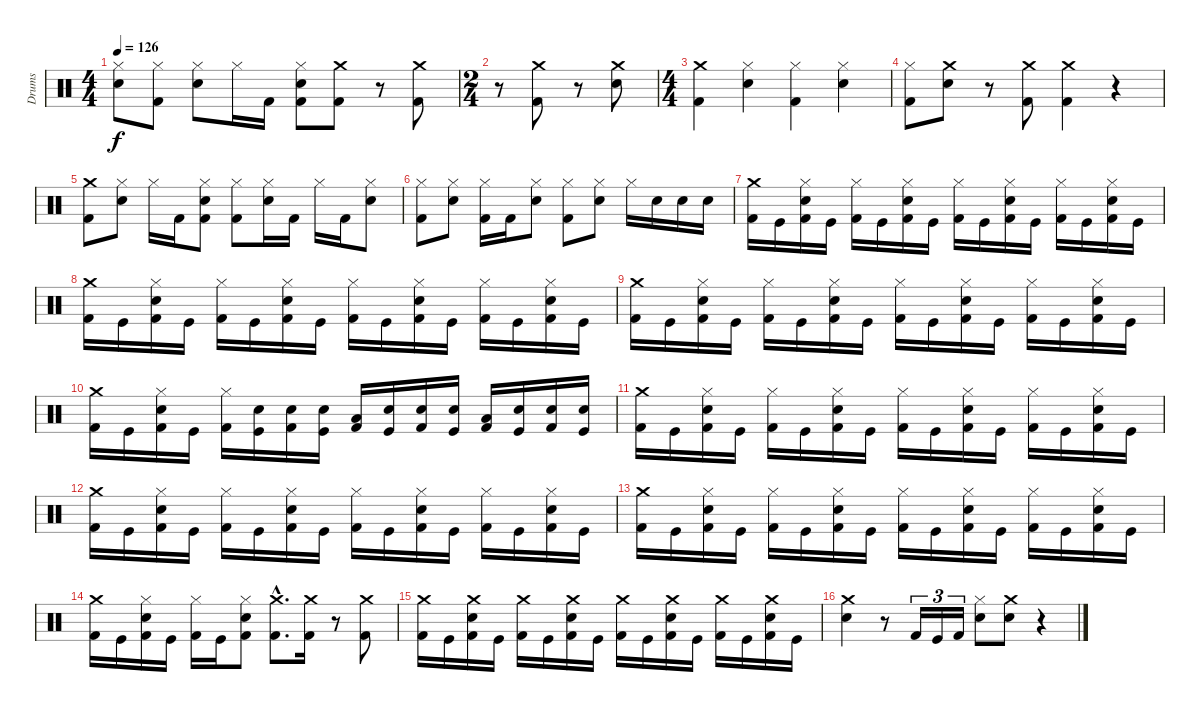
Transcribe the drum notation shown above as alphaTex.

\track ("Drums" "Drums") {instrument percussion}
\staff {score}
\articulation defaults
\ts (4 4)
\tempo 126
\clef neutral
\ks c
("Snare (hit) 2" "Hi-Hat (closed)").8{dy f} ("Kick (hit) 2" "Hi-Hat (closed)").8 ("Hi-Hat (closed)" "Snare (hit) 2").8 "Hi-Hat (closed)".16 "Kick (hit) 2".16 ("Hi-Hat (closed)" "Snare (hit) 2" "Kick (hit) 2").8 ("Crash medium (hit)" "Kick (hit) 2").8 r.8 ("Kick (hit) 2" "Crash medium (hit)").8 |
\ts (2 4)
r.8 ("Crash medium (hit)" "Kick (hit) 2").8 r.8 ("Crash medium (hit)" "Snare (hit) 2").8 |
\ts (4 4)
("Kick (hit) 2" "Crash medium (hit)").4 ("Hi-Hat (closed)" "Snare (hit) 2").4 ("Hi-Hat (closed)" "Kick (hit) 2").4 ("Snare (hit) 2" "Hi-Hat (closed)").4 |
("Hi-Hat (closed)" "Kick (hit) 2").8 ("Snare (hit) 2" "Crash medium (hit)").8 r.8 ("Crash medium (hit)" "Kick (hit) 2").8 ("Kick (hit) 2" "Crash medium (hit)").4 r.4 |
("Kick (hit) 2" "Crash medium (hit)").8 ("Snare (hit) 2" "Hi-Hat (closed)").8 "Hi-Hat (closed)".16 "Kick (hit) 2".16 ("Kick (hit) 2" "Snare (hit) 2" "Hi-Hat (closed)").8 ("Kick (hit) 2" "Hi-Hat (closed)").8 ("Snare (hit) 2" "Hi-Hat (closed)").16 "Kick (hit) 2".16 "Hi-Hat (closed)".16 "Kick (hit) 2".16 ("Snare (hit) 2" "Hi-Hat (closed)").8 |
("Hi-Hat (closed)" "Kick (hit) 2").8 ("Snare (hit) 2" "Hi-Hat (closed)").8 ("Kick (hit) 2" "Hi-Hat (closed)").16 "Kick (hit) 2".16 ("Snare (hit) 2" "Hi-Hat (closed)").8 ("Hi-Hat (closed)" "Kick (hit) 2").8 ("Snare (hit) 2" "Hi-Hat (closed)").8 "Hi-Hat (closed)".16 "Snare (hit) 2".16 "Snare (hit) 2".16 "Snare (hit) 2".16 |
("Crash medium (hit)" "Kick (hit) 2").16 "Kick (hit)".16 ("Snare (hit) 2" "Hi-Hat (closed)" "Kick (hit) 2").16 "Kick (hit)".16 ("Hi-Hat (closed)" "Kick (hit) 2").16 "Kick (hit)".16 ("Snare (hit) 2" "Hi-Hat (closed)" "Kick (hit) 2").16 "Kick (hit)".16 ("Hi-Hat (closed)" "Kick (hit) 2").16 "Kick (hit)".16 ("Snare (hit) 2" "Hi-Hat (closed)" "Kick (hit) 2").16 "Kick (hit)".16 ("Hi-Hat (closed)" "Kick (hit) 2").16 "Kick (hit)".16 ("Snare (hit) 2" "Hi-Hat (closed)" "Kick (hit) 2").16 "Kick (hit)".16 |
("Crash medium (hit)" "Kick (hit) 2").16 "Kick (hit)".16 ("Snare (hit) 2" "Hi-Hat (closed)" "Kick (hit) 2").16 "Kick (hit)".16 ("Hi-Hat (closed)" "Kick (hit) 2").16 "Kick (hit)".16 ("Snare (hit) 2" "Hi-Hat (closed)" "Kick (hit) 2").16 "Kick (hit)".16 ("Hi-Hat (closed)" "Kick (hit) 2").16 "Kick (hit)".16 ("Snare (hit) 2" "Hi-Hat (closed)" "Kick (hit) 2").16 "Kick (hit)".16 ("Hi-Hat (closed)" "Kick (hit) 2").16 "Kick (hit)".16 ("Snare (hit) 2" "Hi-Hat (closed)" "Kick (hit) 2").16 "Kick (hit)".16 |
("Crash medium (hit)" "Kick (hit) 2").16 "Kick (hit)".16 ("Snare (hit) 2" "Hi-Hat (closed)" "Kick (hit) 2").16 "Kick (hit)".16 ("Hi-Hat (closed)" "Kick (hit) 2").16 "Kick (hit)".16 ("Snare (hit) 2" "Hi-Hat (closed)" "Kick (hit) 2").16 "Kick (hit)".16 ("Hi-Hat (closed)" "Kick (hit) 2").16 "Kick (hit)".16 ("Snare (hit) 2" "Hi-Hat (closed)" "Kick (hit) 2").16 "Kick (hit)".16 ("Hi-Hat (closed)" "Kick (hit) 2").16 "Kick (hit)".16 ("Snare (hit) 2" "Hi-Hat (closed)" "Kick (hit) 2").16 "Kick (hit)".16 |
("Crash medium (hit)" "Kick (hit) 2").16 "Kick (hit)".16 ("Snare (hit) 2" "Hi-Hat (closed)" "Kick (hit) 2").16 "Kick (hit)".16 ("Hi-Hat (closed)" "Kick (hit) 2").16 ("Snare (hit) 2" "Kick (hit)").16 ("Snare (hit) 2" "Kick (hit) 2").16 ("Snare (hit) 2" "Kick (hit)").16 ("Low Tom (hit)" "Kick (hit) 2").16 ("Snare (hit) 2" "Kick (hit)").16 ("Snare (hit) 2" "Kick (hit) 2").16 ("Snare (hit) 2" "Kick (hit)").16 ("Low Tom (hit)" "Kick (hit) 2").16 ("Snare (hit) 2" "Kick (hit)").16 ("Snare (hit) 2" "Kick (hit) 2").16 ("Snare (hit) 2" "Kick (hit)").16 |
("Crash medium (hit)" "Kick (hit) 2").16 "Kick (hit)".16 ("Snare (hit) 2" "Hi-Hat (closed)" "Kick (hit) 2").16 "Kick (hit)".16 ("Hi-Hat (closed)" "Kick (hit) 2").16 "Kick (hit)".16 ("Snare (hit) 2" "Hi-Hat (closed)" "Kick (hit) 2").16 "Kick (hit)".16 ("Hi-Hat (closed)" "Kick (hit) 2").16 "Kick (hit)".16 ("Snare (hit) 2" "Hi-Hat (closed)" "Kick (hit) 2").16 "Kick (hit)".16 ("Hi-Hat (closed)" "Kick (hit) 2").16 "Kick (hit)".16 ("Snare (hit) 2" "Hi-Hat (closed)" "Kick (hit) 2").16 "Kick (hit)".16 |
("Crash medium (hit)" "Kick (hit) 2").16 "Kick (hit)".16 ("Snare (hit) 2" "Hi-Hat (closed)" "Kick (hit) 2").16 "Kick (hit)".16 ("Hi-Hat (closed)" "Kick (hit) 2").16 "Kick (hit)".16 ("Snare (hit) 2" "Hi-Hat (closed)" "Kick (hit) 2").16 "Kick (hit)".16 ("Hi-Hat (closed)" "Kick (hit) 2").16 "Kick (hit)".16 ("Snare (hit) 2" "Hi-Hat (closed)" "Kick (hit) 2").16 "Kick (hit)".16 ("Hi-Hat (closed)" "Kick (hit) 2").16 "Kick (hit)".16 ("Snare (hit) 2" "Hi-Hat (closed)" "Kick (hit) 2").16 "Kick (hit)".16 |
("Crash medium (hit)" "Kick (hit) 2").16 "Kick (hit)".16 ("Snare (hit) 2" "Hi-Hat (closed)" "Kick (hit) 2").16 "Kick (hit)".16 ("Hi-Hat (closed)" "Kick (hit) 2").16 "Kick (hit)".16 ("Snare (hit) 2" "Hi-Hat (closed)" "Kick (hit) 2").16 "Kick (hit)".16 ("Hi-Hat (closed)" "Kick (hit) 2").16 "Kick (hit)".16 ("Snare (hit) 2" "Hi-Hat (closed)" "Kick (hit) 2").16 "Kick (hit)".16 ("Hi-Hat (closed)" "Kick (hit) 2").16 "Kick (hit)".16 ("Snare (hit) 2" "Hi-Hat (closed)" "Kick (hit) 2").16 "Kick (hit)".16 |
("Kick (hit) 2" "Crash medium (hit)").16 "Kick (hit)".16 ("Kick (hit) 2" "Snare (hit) 2" "Hi-Hat (closed)").16 "Kick (hit)".16 ("Kick (hit) 2" "Hi-Hat (closed)").16 "Kick (hit)".16 ("Snare (hit) 2" "Hi-Hat (closed)" "Kick (hit) 2").8 ("Crash medium (hit)"{hac} "Kick (hit) 2"{hac}).8{d} ("Crash medium (hit)" "Kick (hit) 2").16 r.8 ("Crash medium (hit)" "Kick (hit) 2").8 |
("Crash medium (hit)" "Kick (hit) 2").16 "Kick (hit)".16 ("Snare (hit) 2" "Crash medium (hit)" "Kick (hit) 2").16 "Kick (hit)".16 ("Crash medium (hit)" "Kick (hit) 2").16 "Kick (hit)".16 ("Snare (hit) 2" "Crash medium (hit)" "Kick (hit) 2").16 "Kick (hit)".16 ("Crash medium (hit)" "Kick (hit) 2").16 "Kick (hit)".16 ("Snare (hit) 2" "Crash medium (hit)" "Kick (hit) 2").16 "Kick (hit)".16 ("Crash medium (hit)" "Kick (hit) 2").16 "Kick (hit)".16 ("Kick (hit) 2" "Snare (hit) 2" "Crash medium (hit)").16 "Kick (hit)".16 |
("Snare (hit) 2" "Crash medium (hit)").4 r.8 "Kick (hit) 2".16{tu (3 2)} "Kick (hit)".16{tu (3 2)} "Kick (hit) 2".16{tu (3 2)} ("Snare (hit) 2" "Hi-Hat (closed)").8 ("Crash medium (hit)" "Snare (hit) 2").8 r.4
